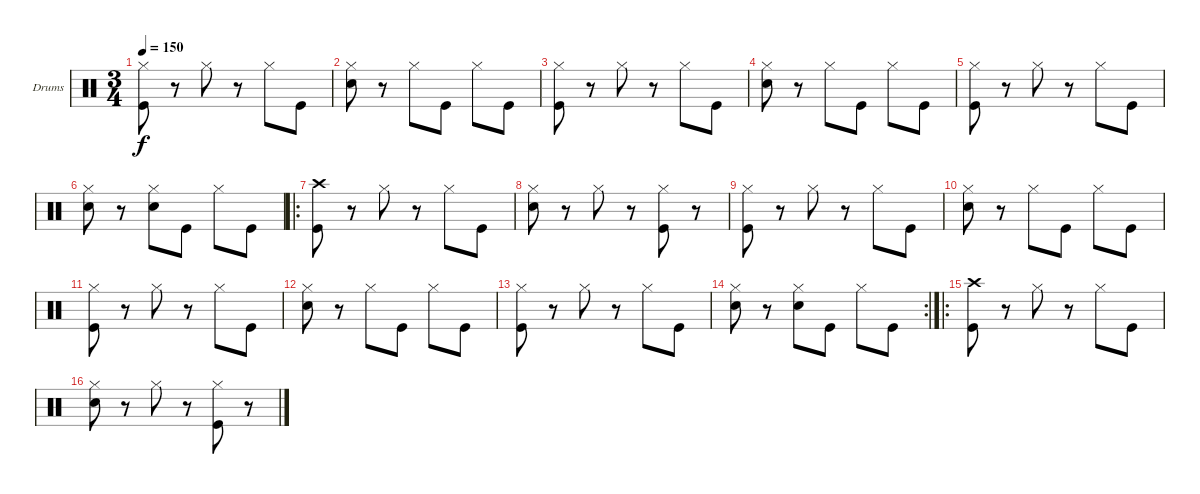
\defaultSystemsLayout 4
\bracketExtendMode groupsimilarinstruments
\firstSystemTrackNameOrientation horizontal
\otherSystemsTrackNameOrientation horizontal
\track ("Scott" "Drums") {mute instrument percussion}
\staff {score}
\articulation defaults
\ts (3 4)
\tempo 150
\clef neutral
\scale
0.333333
\ks c
("Hi-Hat (closed)" "Kick (hit)").8{dy f} r.8 "Hi-Hat (closed)".8 r.8 "Hi-Hat (closed)".8 "Kick (hit)".8 |
\scale
0.333333 ("Snare (hit) 2" "Hi-Hat (closed)").8 r.8 "Hi-Hat (closed)".8 "Kick (hit)".8 "Hi-Hat (closed)".8 "Kick (hit)".8 |
\scale
0.333333 ("Hi-Hat (closed)" "Kick (hit)").8 r.8 "Hi-Hat (closed)".8 r.8 "Hi-Hat (closed)".8 "Kick (hit)".8 |
\scale
0.333333 ("Snare (hit) 2" "Hi-Hat (closed)").8 r.8 "Hi-Hat (closed)".8 "Kick (hit)".8 "Hi-Hat (closed)".8 "Kick (hit)".8 |
\scale
0.333333 ("Hi-Hat (closed)" "Kick (hit)").8 r.8 "Hi-Hat (closed)".8 r.8 "Hi-Hat (closed)".8 "Kick (hit)".8 |
\scale
0.333333 ("Hi-Hat (closed)" "Snare (hit) 2").8 r.8 ("Snare (hit) 2" "Hi-Hat (closed)").8 "Kick (hit)".8 "Hi-Hat (closed)".8 "Kick (hit)".8 |
\ro
\scale
0.377049 ("Kick (hit)" "Crash high (hit)").8 r.8 "Hi-Hat (closed)".8 r.8 "Hi-Hat (closed)".8 "Kick (hit)".8 |
\scale
0.311475 ("Hi-Hat (closed)" "Snare (hit) 2").8 r.8 "Hi-Hat (closed)".8 r.8 ("Hi-Hat (closed)" "Kick (hit)").8 r.8 |
\scale
0.311475 ("Hi-Hat (closed)" "Kick (hit)").8 r.8 "Hi-Hat (closed)".8 r.8 "Hi-Hat (closed)".8 "Kick (hit)".8 |
\scale
0.333333 ("Snare (hit) 2" "Hi-Hat (closed)").8 r.8 "Hi-Hat (closed)".8 "Kick (hit)".8 "Hi-Hat (closed)".8 "Kick (hit)".8 |
\scale
0.333333 ("Hi-Hat (closed)" "Kick (hit)").8 r.8 "Hi-Hat (closed)".8 r.8 "Hi-Hat (closed)".8 "Kick (hit)".8 |
\scale
0.333333 ("Snare (hit) 2" "Hi-Hat (closed)").8 r.8 "Hi-Hat (closed)".8 "Kick (hit)".8 "Hi-Hat (closed)".8 "Kick (hit)".8 |
\scale
0.301587 ("Hi-Hat (closed)" "Kick (hit)").8 r.8 "Hi-Hat (closed)".8 r.8 "Hi-Hat (closed)".8 "Kick (hit)".8 |
\rc 2
\scale
0.333333 ("Hi-Hat (closed)" "Snare (hit) 2").8 r.8 ("Snare (hit) 2" "Hi-Hat (closed)").8 "Kick (hit)".8 "Hi-Hat (closed)".8 "Kick (hit)".8 |
\ro
\scale
0.365079 ("Kick (hit)" "Crash high (hit)").8 r.8 "Hi-Hat (closed)".8 r.8 "Hi-Hat (closed)".8 "Kick (hit)".8 |
\scale
0.333333 ("Hi-Hat (closed)" "Snare (hit) 2").8 r.8 "Hi-Hat (closed)".8 r.8 ("Hi-Hat (closed)" "Kick (hit)").8 r.8
